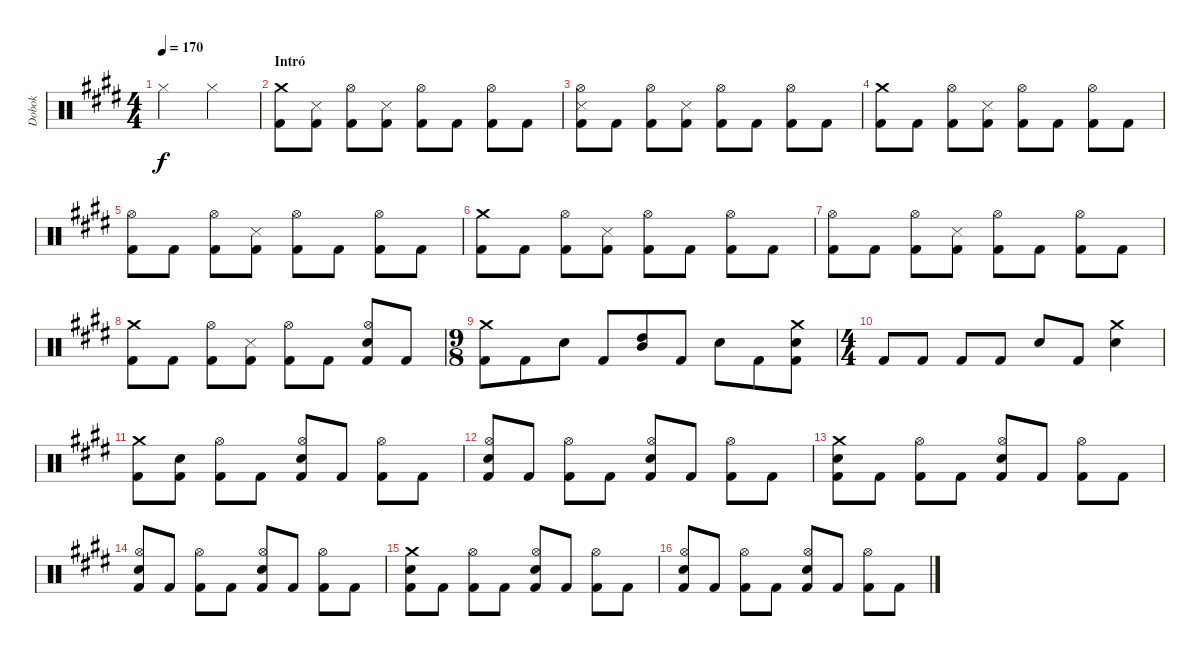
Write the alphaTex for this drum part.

\track ("Dobok" "Dobok") {instrument percussion}
\staff {score}
\articulation defaults
\ts (4 4)
\tempo 170
\clef neutral
\ks c#minor "Hi-Hat (closed)".2{dy f} "Hi-Hat (closed)".2
|
\section ("" "Intró")
("Crash medium (hit)" "Kick (hit) 2").8 ("Snare (side stick) 3" "Kick (hit) 2").8 ("Hi-Hat (open)" "Kick (hit) 2").8 ("Snare (side stick) 3" "Kick (hit) 2").8 ("Hi-Hat (open)" "Kick (hit) 2").8 "Kick (hit) 2".8 ("Hi-Hat (open)" "Kick (hit) 2").8 "Kick (hit) 2".8 |
("Hi-Hat (open)" "Snare (side stick) 3" "Kick (hit) 2").8 "Kick (hit) 2".8 ("Hi-Hat (open)" "Kick (hit) 2").8 ("Snare (side stick) 3" "Kick (hit) 2").8 ("Hi-Hat (open)" "Kick (hit) 2").8 "Kick (hit) 2".8 ("Hi-Hat (open)" "Kick (hit) 2").8 "Kick (hit) 2".8 |
("Crash medium (hit)" "Kick (hit) 2").8 "Kick (hit) 2".8 ("Hi-Hat (open)" "Kick (hit) 2").8 ("Snare (side stick) 3" "Kick (hit) 2").8 ("Hi-Hat (open)" "Kick (hit) 2").8 "Kick (hit) 2".8 ("Hi-Hat (open)" "Kick (hit) 2").8 "Kick (hit) 2".8 |
("Hi-Hat (open)" "Kick (hit) 2").8 "Kick (hit) 2".8 ("Hi-Hat (open)" "Kick (hit) 2").8 ("Snare (side stick) 3" "Kick (hit) 2").8 ("Hi-Hat (open)" "Kick (hit) 2").8 "Kick (hit) 2".8 ("Hi-Hat (open)" "Kick (hit) 2").8 "Kick (hit) 2".8 |
("Crash medium (hit)" "Kick (hit) 2").8 "Kick (hit) 2".8 ("Hi-Hat (open)" "Kick (hit) 2").8 ("Snare (side stick) 3" "Kick (hit) 2").8 ("Hi-Hat (open)" "Kick (hit) 2").8 "Kick (hit) 2".8 ("Hi-Hat (open)" "Kick (hit) 2").8 "Kick (hit) 2".8 |
("Hi-Hat (open)" "Kick (hit) 2").8 "Kick (hit) 2".8 ("Hi-Hat (open)" "Kick (hit) 2").8 ("Snare (side stick) 3" "Kick (hit) 2").8 ("Hi-Hat (open)" "Kick (hit) 2").8 "Kick (hit) 2".8 ("Hi-Hat (open)" "Kick (hit) 2").8 "Kick (hit) 2".8 |
("Crash medium (hit)" "Kick (hit) 2").8 "Kick (hit) 2".8 ("Hi-Hat (open)" "Kick (hit) 2").8 ("Snare (side stick) 3" "Kick (hit) 2").8 ("Hi-Hat (open)" "Kick (hit) 2").8 "Kick (hit) 2".8 ("Hi-Hat (open)" "Snare (hit) 2" "Kick (hit) 2").8 "Kick (hit) 2".8 |
\ts (9 8)
("Crash medium (hit)" "Kick (hit) 2").8 "Kick (hit) 2".8 "Snare (hit) 2".8 "Kick (hit) 2".8 ("High Tom (hit)" "Mid Tom (hit)").8 "Kick (hit) 2".8 "Snare (hit) 2".8 "Kick (hit) 2".8 ("Crash medium (hit)" "Snare (hit) 2" "Kick (hit) 2").8 |
\ts (4 4)
"Kick (hit) 2".8 "Kick (hit) 2".8 "Kick (hit) 2".8 "Kick (hit) 2".8 "Snare (hit) 2".8 "Kick (hit) 2".8 ("Crash medium (hit)" "Snare (hit) 2").4 |
("Crash medium (hit)" "Kick (hit) 2").8 ("Snare (hit) 2" "Kick (hit) 2").8 ("Hi-Hat (open)" "Kick (hit) 2").8 "Kick (hit) 2".8 ("Hi-Hat (open)" "Snare (hit) 2" "Kick (hit) 2").8 "Kick (hit) 2".8 ("Hi-Hat (open)" "Kick (hit) 2").8 "Kick (hit) 2".8 |
("Hi-Hat (open)" "Snare (hit) 2" "Kick (hit) 2").8 "Kick (hit) 2".8 ("Hi-Hat (open)" "Kick (hit) 2").8 "Kick (hit) 2".8 ("Hi-Hat (open)" "Snare (hit) 2" "Kick (hit) 2").8 "Kick (hit) 2".8 ("Hi-Hat (open)" "Kick (hit) 2").8 "Kick (hit) 2".8 |
("Crash medium (hit)" "Snare (hit) 2" "Kick (hit) 2").8 "Kick (hit) 2".8 ("Hi-Hat (open)" "Kick (hit) 2").8 "Kick (hit) 2".8 ("Hi-Hat (open)" "Snare (hit) 2" "Kick (hit) 2").8 "Kick (hit) 2".8 ("Hi-Hat (open)" "Kick (hit) 2").8 "Kick (hit) 2".8 |
("Hi-Hat (open)" "Snare (hit) 2" "Kick (hit) 2").8 "Kick (hit) 2".8 ("Hi-Hat (open)" "Kick (hit) 2").8 "Kick (hit) 2".8 ("Hi-Hat (open)" "Snare (hit) 2" "Kick (hit) 2").8 "Kick (hit) 2".8 ("Hi-Hat (open)" "Kick (hit) 2").8 "Kick (hit) 2".8 |
("Crash medium (hit)" "Snare (hit) 2" "Kick (hit) 2").8 "Kick (hit) 2".8 ("Hi-Hat (open)" "Kick (hit) 2").8 "Kick (hit) 2".8 ("Hi-Hat (open)" "Snare (hit) 2" "Kick (hit) 2").8 "Kick (hit) 2".8 ("Hi-Hat (open)" "Kick (hit) 2").8 "Kick (hit) 2".8 |
("Hi-Hat (open)" "Snare (hit) 2" "Kick (hit) 2").8 "Kick (hit) 2".8 ("Hi-Hat (open)" "Kick (hit) 2").8 "Kick (hit) 2".8 ("Hi-Hat (open)" "Snare (hit) 2" "Kick (hit) 2").8 "Kick (hit) 2".8 ("Hi-Hat (open)" "Kick (hit) 2").8 "Kick (hit) 2".8
